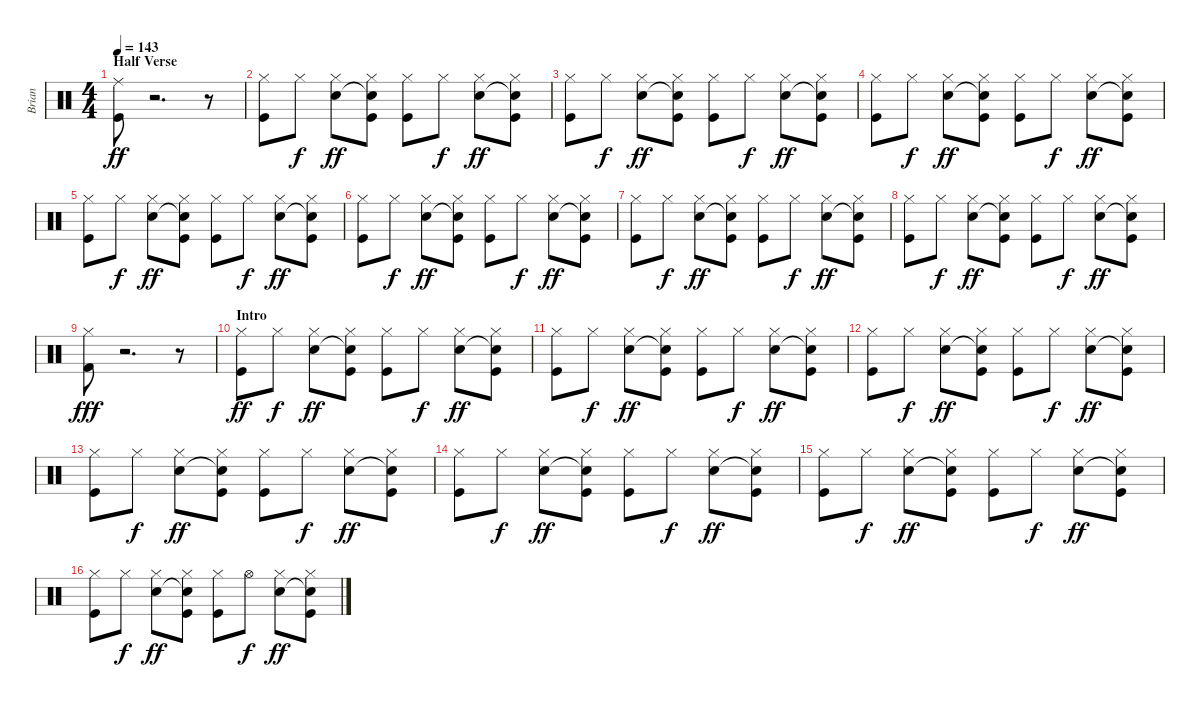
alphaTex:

\track ("Brian" "Brian") {instrument percussion}
\staff {score}
\articulation defaults
\ts (4 4)
\section ("" "Half Verse")
\tempo 143
\clef neutral
\ks c
("Ride (middle)" "Kick (hit)").8{dy ff} r.2{d} r.8 |
("Hi-Hat (closed)" "Kick (hit)").8 "Hi-Hat (closed)".8{dy f} ("Hi-Hat (closed)" "Electric Snare (hit)").8{dy ff} ("Hi-Hat (closed)" "Snare (hit)"{t} "Kick (hit)").8 ("Hi-Hat (closed)" "Kick (hit)").8 "Hi-Hat (closed)".8{dy f} ("Hi-Hat (closed)" "Electric Snare (hit)").8{dy ff} ("Hi-Hat (closed)" "Snare (hit)"{t} "Kick (hit)").8 |
("Hi-Hat (closed)" "Kick (hit)").8 "Hi-Hat (closed)".8{dy f} ("Hi-Hat (closed)" "Electric Snare (hit)").8{dy ff} ("Hi-Hat (closed)" "Snare (hit)"{t} "Kick (hit)").8 ("Hi-Hat (closed)" "Kick (hit)").8 "Hi-Hat (closed)".8{dy f} ("Hi-Hat (closed)" "Electric Snare (hit)").8{dy ff} ("Hi-Hat (closed)" "Snare (hit)"{t} "Kick (hit)").8 |
("Hi-Hat (closed)" "Kick (hit)").8 "Hi-Hat (closed)".8{dy f} ("Hi-Hat (closed)" "Electric Snare (hit)").8{dy ff} ("Hi-Hat (closed)" "Snare (hit)"{t} "Kick (hit)").8 ("Hi-Hat (closed)" "Kick (hit)").8 "Hi-Hat (closed)".8{dy f} ("Hi-Hat (closed)" "Electric Snare (hit)").8{dy ff} ("Hi-Hat (closed)" "Snare (hit)"{t} "Kick (hit)").8 |
("Hi-Hat (closed)" "Kick (hit)").8 "Hi-Hat (closed)".8{dy f} ("Hi-Hat (closed)" "Electric Snare (hit)").8{dy ff} ("Hi-Hat (closed)" "Snare (hit)"{t} "Kick (hit)").8 ("Hi-Hat (closed)" "Kick (hit)").8 "Hi-Hat (closed)".8{dy f} ("Hi-Hat (closed)" "Electric Snare (hit)").8{dy ff} ("Hi-Hat (closed)" "Snare (hit)"{t} "Kick (hit)").8 |
("Hi-Hat (closed)" "Kick (hit)").8 "Hi-Hat (closed)".8{dy f} ("Hi-Hat (closed)" "Electric Snare (hit)").8{dy ff} ("Hi-Hat (closed)" "Snare (hit)"{t} "Kick (hit)").8 ("Hi-Hat (closed)" "Kick (hit)").8 "Hi-Hat (closed)".8{dy f} ("Hi-Hat (closed)" "Electric Snare (hit)").8{dy ff} ("Hi-Hat (closed)" "Snare (hit)"{t} "Kick (hit)").8 |
("Hi-Hat (closed)" "Kick (hit)").8 "Hi-Hat (closed)".8{dy f} ("Hi-Hat (closed)" "Electric Snare (hit)").8{dy ff} ("Hi-Hat (closed)" "Snare (hit)"{t} "Kick (hit)").8 ("Hi-Hat (closed)" "Kick (hit)").8 "Hi-Hat (closed)".8{dy f} ("Hi-Hat (closed)" "Electric Snare (hit)").8{dy ff} ("Hi-Hat (closed)" "Snare (hit)"{t} "Kick (hit)").8 |
("Hi-Hat (closed)" "Kick (hit)").8 "Hi-Hat (closed)".8{dy f} ("Hi-Hat (closed)" "Electric Snare (hit)").8{dy ff} ("Hi-Hat (closed)" "Snare (hit)"{t} "Kick (hit)").8 ("Hi-Hat (closed)" "Kick (hit)").8 "Hi-Hat (closed)".8{dy f} ("Hi-Hat (closed)" "Electric Snare (hit)").8{dy ff} ("Hi-Hat (closed)" "Snare (hit)"{t} "Kick (hit)").8 |
("Kick (hit) 2" "Hi-Hat (closed)").8{dy fff} r.2{d} r.8 |
\section ("" "Intro")
("Hi-Hat (closed)" "Kick (hit)").8{dy ff} "Hi-Hat (closed)".8{dy f} ("Hi-Hat (closed)" "Electric Snare (hit)").8{dy ff} ("Hi-Hat (closed)" "Snare (hit)"{t} "Kick (hit)").8 ("Hi-Hat (closed)" "Kick (hit)").8 "Hi-Hat (closed)".8{dy f} ("Hi-Hat (closed)" "Electric Snare (hit)").8{dy ff} ("Hi-Hat (closed)" "Snare (hit)"{t} "Kick (hit)").8 |
("Hi-Hat (closed)" "Kick (hit)").8 "Hi-Hat (closed)".8{dy f} ("Hi-Hat (closed)" "Electric Snare (hit)").8{dy ff} ("Hi-Hat (closed)" "Snare (hit)"{t} "Kick (hit)").8 ("Hi-Hat (closed)" "Kick (hit)").8 "Hi-Hat (closed)".8{dy f} ("Hi-Hat (closed)" "Electric Snare (hit)").8{dy ff} ("Hi-Hat (closed)" "Snare (hit)"{t} "Kick (hit)").8 |
("Hi-Hat (closed)" "Kick (hit)").8 "Hi-Hat (closed)".8{dy f} ("Hi-Hat (closed)" "Electric Snare (hit)").8{dy ff} ("Hi-Hat (closed)" "Snare (hit)"{t} "Kick (hit)").8 ("Hi-Hat (closed)" "Kick (hit)").8 "Hi-Hat (closed)".8{dy f} ("Hi-Hat (closed)" "Electric Snare (hit)").8{dy ff} ("Hi-Hat (closed)" "Snare (hit)"{t} "Kick (hit)").8 |
("Hi-Hat (closed)" "Kick (hit)").8 "Hi-Hat (closed)".8{dy f} ("Hi-Hat (closed)" "Electric Snare (hit)").8{dy ff} ("Hi-Hat (closed)" "Snare (hit)"{t} "Kick (hit)").8 ("Hi-Hat (closed)" "Kick (hit)").8 "Hi-Hat (closed)".8{dy f} ("Hi-Hat (closed)" "Electric Snare (hit)").8{dy ff} ("Hi-Hat (closed)" "Snare (hit)"{t} "Kick (hit)").8 |
("Hi-Hat (closed)" "Kick (hit)").8 "Hi-Hat (closed)".8{dy f} ("Hi-Hat (closed)" "Electric Snare (hit)").8{dy ff} ("Hi-Hat (closed)" "Snare (hit)"{t} "Kick (hit)").8 ("Hi-Hat (closed)" "Kick (hit)").8 "Hi-Hat (closed)".8{dy f} ("Hi-Hat (closed)" "Electric Snare (hit)").8{dy ff} ("Hi-Hat (closed)" "Electric Snare (hit)"{t} "Kick (hit)").8 |
("Hi-Hat (closed)" "Kick (hit)").8 "Hi-Hat (closed)".8{dy f} ("Hi-Hat (closed)" "Electric Snare (hit)").8{dy ff} ("Hi-Hat (closed)" "Snare (hit)"{t} "Kick (hit)").8 ("Hi-Hat (closed)" "Kick (hit)").8 "Hi-Hat (closed)".8{dy f} ("Hi-Hat (closed)" "Electric Snare (hit)").8{dy ff} ("Hi-Hat (closed)" "Snare (hit)"{t} "Kick (hit)").8 |
("Hi-Hat (closed)" "Kick (hit)").8 "Hi-Hat (closed)".8{dy f} ("Hi-Hat (closed)" "Electric Snare (hit)").8{dy ff} ("Hi-Hat (closed)" "Snare (hit)"{t} "Kick (hit)").8 ("Hi-Hat (closed)" "Kick (hit)").8 "Hi-Hat (open)".8{dy f} ("Hi-Hat (closed)" "Electric Snare (hit)").8{dy ff} ("Hi-Hat (closed)" "Snare (hit)"{t} "Kick (hit)").8
